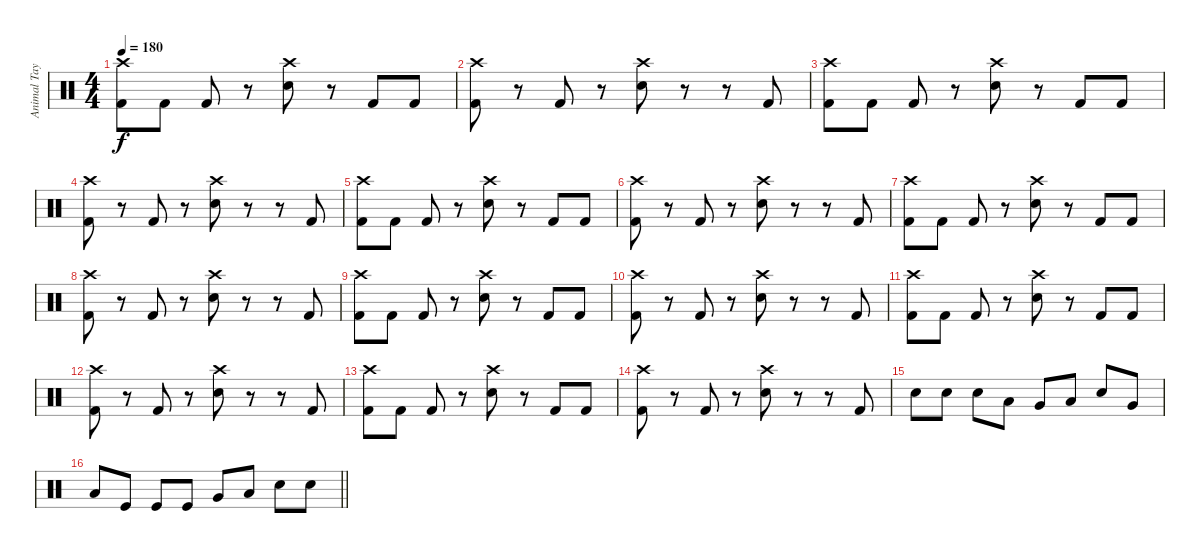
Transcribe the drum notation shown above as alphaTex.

\track ("Animal Taylor" "Animal Tay") {instrument percussion}
\staff {score}
\articulation defaults
\ts (4 4)
\tempo 180
\clef neutral
\ks c
("Crash high (hit)" "Kick (hit) 2").8{dy f} "Kick (hit) 2".8 "Kick (hit) 2".8 r.8 ("Crash high (hit)" "Snare (hit) 2").8 r.8 "Kick (hit) 2".8 "Kick (hit) 2".8 |
("Crash high (hit)" "Kick (hit) 2").8 r.8 "Kick (hit) 2".8 r.8 ("Crash high (hit)" "Snare (hit) 2").8 r.8 r.8 "Kick (hit) 2".8 |
("Crash high (hit)" "Kick (hit) 2").8 "Kick (hit) 2".8 "Kick (hit) 2".8 r.8 ("Crash high (hit)" "Snare (hit) 2").8 r.8 "Kick (hit) 2".8 "Kick (hit) 2".8 |
("Crash high (hit)" "Kick (hit) 2").8 r.8 "Kick (hit) 2".8 r.8 ("Crash high (hit)" "Snare (hit) 2").8 r.8 r.8 "Kick (hit) 2".8 |
("Crash high (hit)" "Kick (hit) 2").8 "Kick (hit) 2".8 "Kick (hit) 2".8 r.8 ("Crash high (hit)" "Snare (hit) 2").8 r.8 "Kick (hit) 2".8 "Kick (hit) 2".8 |
("Crash high (hit)" "Kick (hit) 2").8 r.8 "Kick (hit) 2".8 r.8 ("Crash high (hit)" "Snare (hit) 2").8 r.8 r.8 "Kick (hit) 2".8 |
("Crash high (hit)" "Kick (hit) 2").8 "Kick (hit) 2".8 "Kick (hit) 2".8 r.8 ("Crash high (hit)" "Snare (hit) 2").8 r.8 "Kick (hit) 2".8 "Kick (hit) 2".8 |
("Crash high (hit)" "Kick (hit) 2").8 r.8 "Kick (hit) 2".8 r.8 ("Crash high (hit)" "Snare (hit) 2").8 r.8 r.8 "Kick (hit) 2".8 |
("Crash high (hit)" "Kick (hit) 2").8 "Kick (hit) 2".8 "Kick (hit) 2".8 r.8 ("Crash high (hit)" "Snare (hit) 2").8 r.8 "Kick (hit) 2".8 "Kick (hit) 2".8 |
("Crash high (hit)" "Kick (hit) 2").8 r.8 "Kick (hit) 2".8 r.8 ("Crash high (hit)" "Snare (hit) 2").8 r.8 r.8 "Kick (hit) 2".8 |
("Crash high (hit)" "Kick (hit) 2").8 "Kick (hit) 2".8 "Kick (hit) 2".8 r.8 ("Crash high (hit)" "Snare (hit) 2").8 r.8 "Kick (hit) 2".8 "Kick (hit) 2".8 |
("Crash high (hit)" "Kick (hit) 2").8 r.8 "Kick (hit) 2".8 r.8 ("Crash high (hit)" "Snare (hit) 2").8 r.8 r.8 "Kick (hit) 2".8 |
("Crash high (hit)" "Kick (hit) 2").8 "Kick (hit) 2".8 "Kick (hit) 2".8 r.8 ("Crash high (hit)" "Snare (hit) 2").8 r.8 "Kick (hit) 2".8 "Kick (hit) 2".8 |
("Crash high (hit)" "Kick (hit) 2").8 r.8 "Kick (hit) 2".8 r.8 ("Crash high (hit)" "Snare (hit) 2").8 r.8 r.8 "Kick (hit) 2".8 |
"Snare (hit) 2".8 "Snare (hit) 2".8 "Snare (hit) 2".8 "Low Tom (hit)".8 "Very Low Tom (hit)".8 "Low Floor Tom (hit)".8 "Snare (hit) 2".8 "Very Low Tom (hit)".8 |
\barLineRight lightlight "Low Floor Tom (hit)".8 "Kick (hit)".8 "Kick (hit)".8 "Kick (hit)".8 "Very Low Tom (hit)".8 "Low Floor Tom (hit)".8 "Snare (hit) 2".8 "Snare (hit) 2".8
